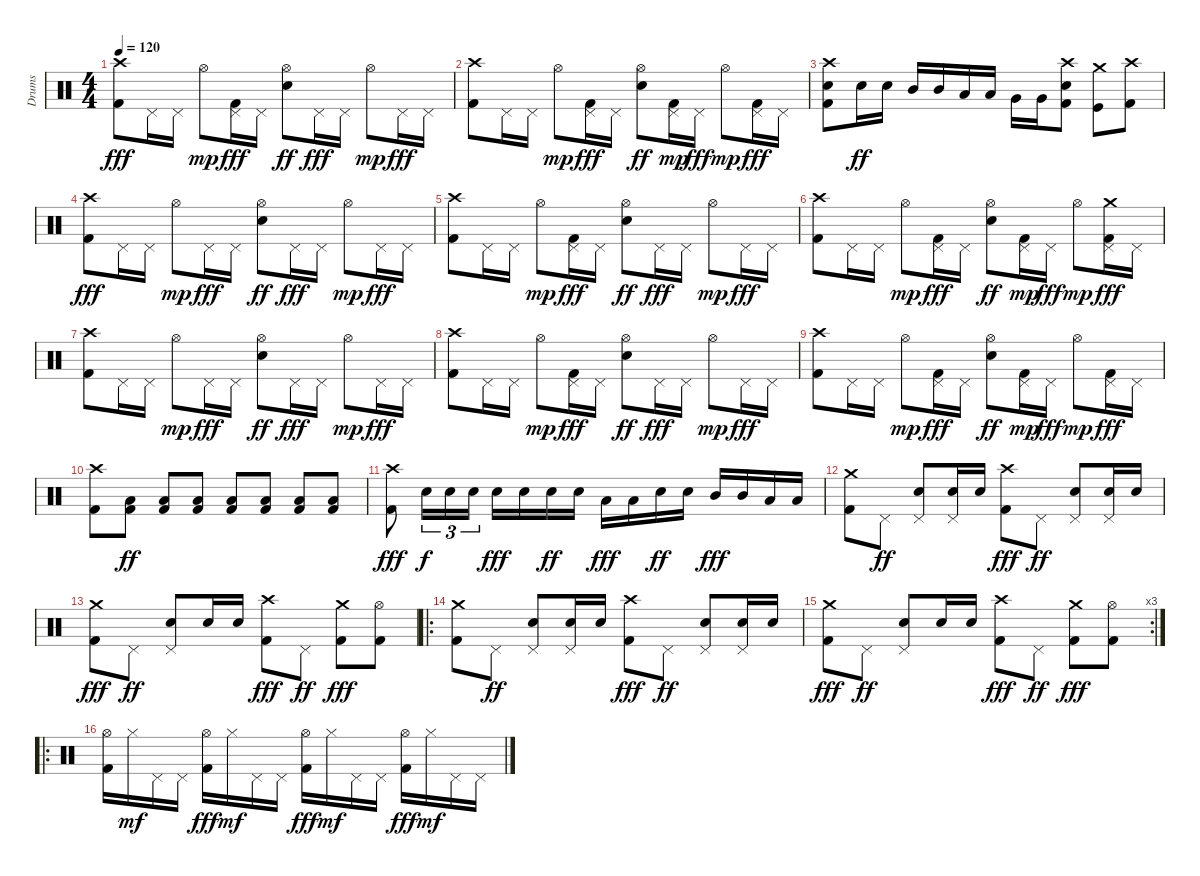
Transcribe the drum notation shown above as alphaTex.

\track ("Drums" "Drums") {instrument percussion}
\staff {score}
\articulation defaults
\ts (4 4)
\tempo 120
\clef neutral
\ks c
("Crash high (hit)" "Kick (hit) 2").8{dy fff} "Pedal Hi-Hat (hit)".16 "Pedal Hi-Hat (hit)".16 "Hi-Hat (open)".8{dy mp} ("Pedal Hi-Hat (hit)" "Kick (hit) 2").16{dy fff} "Pedal Hi-Hat (hit)".16 ("Hi-Hat (open)" "Snare (hit) 2").8{dy ff} "Pedal Hi-Hat (hit)".16{dy fff} "Pedal Hi-Hat (hit)".16 "Hi-Hat (open)".8{dy mp} "Pedal Hi-Hat (hit)".16{dy fff} "Pedal Hi-Hat (hit)".16 |
("Crash high (hit)" "Kick (hit) 2").8 "Pedal Hi-Hat (hit)".16 "Pedal Hi-Hat (hit)".16 "Hi-Hat (open)".8{dy mp} ("Pedal Hi-Hat (hit)" "Kick (hit) 2").16{dy fff} "Pedal Hi-Hat (hit)".16 ("Hi-Hat (open)" "Snare (hit) 2").8{dy ff} ("Pedal Hi-Hat (hit)" "Kick (hit) 2").16{dy mp} "Pedal Hi-Hat (hit)".16{dy fff} "Hi-Hat (open)".8{dy mp} ("Pedal Hi-Hat (hit)" "Kick (hit) 2").16{dy fff} "Pedal Hi-Hat (hit)".16 |
("Crash high (hit)" "Snare (hit) 2" "Kick (hit) 2").8 "Snare (hit) 2".16{dy ff} "Snare (hit) 2".16 "Mid Tom (hit)".16 "Mid Tom (hit)".16 "Low Tom (hit)".16 "Low Tom (hit)".16 "Very Low Tom (hit)".16 "Very Low Tom (hit)".16 ("Crash high (hit)" "Snare (hit) 2" "Kick (hit) 2").8 ("Crash medium (hit)" "Kick (hit)").8 ("Crash high (hit)" "Kick (hit) 2").8 |
("Crash high (hit)" "Kick (hit) 2").8{dy fff} "Pedal Hi-Hat (hit)".16 "Pedal Hi-Hat (hit)".16 "Hi-Hat (open)".8{dy mp} "Pedal Hi-Hat (hit)".16{dy fff} "Pedal Hi-Hat (hit)".16 ("Hi-Hat (open)" "Snare (hit) 2").8{dy ff} "Pedal Hi-Hat (hit)".16{dy fff} "Pedal Hi-Hat (hit)".16 "Hi-Hat (open)".8{dy mp} "Pedal Hi-Hat (hit)".16{dy fff} "Pedal Hi-Hat (hit)".16 |
("Crash high (hit)" "Kick (hit) 2").8 "Pedal Hi-Hat (hit)".16 "Pedal Hi-Hat (hit)".16 "Hi-Hat (open)".8{dy mp} ("Pedal Hi-Hat (hit)" "Kick (hit) 2").16{dy fff} "Pedal Hi-Hat (hit)".16 ("Hi-Hat (open)" "Snare (hit) 2").8{dy ff} "Pedal Hi-Hat (hit)".16{dy fff} "Pedal Hi-Hat (hit)".16 "Hi-Hat (open)".8{dy mp} "Pedal Hi-Hat (hit)".16{dy fff} "Pedal Hi-Hat (hit)".16 |
("Crash high (hit)" "Kick (hit) 2").8 "Pedal Hi-Hat (hit)".16 "Pedal Hi-Hat (hit)".16 "Hi-Hat (open)".8{dy mp} ("Pedal Hi-Hat (hit)" "Kick (hit) 2").16{dy fff} "Pedal Hi-Hat (hit)".16 ("Hi-Hat (open)" "Snare (hit) 2").8{dy ff} ("Pedal Hi-Hat (hit)" "Kick (hit) 2").16{dy mp} "Pedal Hi-Hat (hit)".16{dy fff} "Hi-Hat (open)".8{dy mp} ("Crash medium (hit)" "Pedal Hi-Hat (hit)" "Kick (hit) 2").16{dy fff} "Pedal Hi-Hat (hit)".16 |
("Crash high (hit)" "Kick (hit) 2").8 "Pedal Hi-Hat (hit)".16 "Pedal Hi-Hat (hit)".16 "Hi-Hat (open)".8{dy mp} "Pedal Hi-Hat (hit)".16{dy fff} "Pedal Hi-Hat (hit)".16 ("Hi-Hat (open)" "Snare (hit) 2").8{dy ff} "Pedal Hi-Hat (hit)".16{dy fff} "Pedal Hi-Hat (hit)".16 "Hi-Hat (open)".8{dy mp} "Pedal Hi-Hat (hit)".16{dy fff} "Pedal Hi-Hat (hit)".16 |
("Crash high (hit)" "Kick (hit) 2").8 "Pedal Hi-Hat (hit)".16 "Pedal Hi-Hat (hit)".16 "Hi-Hat (open)".8{dy mp} ("Pedal Hi-Hat (hit)" "Kick (hit) 2").16{dy fff} "Pedal Hi-Hat (hit)".16 ("Hi-Hat (open)" "Snare (hit) 2").8{dy ff} "Pedal Hi-Hat (hit)".16{dy fff} "Pedal Hi-Hat (hit)".16 "Hi-Hat (open)".8{dy mp} "Pedal Hi-Hat (hit)".16{dy fff} "Pedal Hi-Hat (hit)".16 |
("Crash high (hit)" "Kick (hit) 2").8 "Pedal Hi-Hat (hit)".16 "Pedal Hi-Hat (hit)".16 "Hi-Hat (open)".8{dy mp} ("Pedal Hi-Hat (hit)" "Kick (hit) 2").16{dy fff} "Pedal Hi-Hat (hit)".16 ("Hi-Hat (open)" "Snare (hit) 2").8{dy ff} ("Pedal Hi-Hat (hit)" "Kick (hit) 2").16{dy mp} "Pedal Hi-Hat (hit)".16{dy fff} "Hi-Hat (open)".8{dy mp} ("Pedal Hi-Hat (hit)" "Kick (hit) 2").16{dy fff} "Pedal Hi-Hat (hit)".16 |
("Crash high (hit)" "Kick (hit) 2").8 ("Low Tom (hit)" "Kick (hit) 2").8{dy ff} ("Low Tom (hit)" "Kick (hit) 2").8 ("Low Tom (hit)" "Kick (hit) 2").8 ("Low Tom (hit)" "Kick (hit) 2").8 ("Low Tom (hit)" "Kick (hit) 2").8 ("Low Tom (hit)" "Kick (hit) 2").8 ("Low Tom (hit)" "Kick (hit) 2").8 |
("Crash high (hit)" "Kick (hit) 2").8{dy fff} "Snare (hit) 2".16{tu (3 2) dy f} "Snare (hit) 2".16{tu (3 2)} "Snare (hit) 2".16{tu (3 2)} "Snare (hit) 2".16{dy fff} "Snare (hit) 2".16 "Snare (hit) 2".16{dy ff} "Snare (hit) 2".16 "Low Tom (hit)".16{dy fff} "Low Tom (hit)".16 "Snare (hit) 2".16{dy ff} "Snare (hit) 2".16 "Mid Tom (hit)".16{dy fff} "Mid Tom (hit)".16 "Low Tom (hit)".16 "Low Tom (hit)".16 |
("Crash medium (hit)" "Kick (hit) 2").8 "Pedal Hi-Hat (hit)".8{dy ff} ("Pedal Hi-Hat (hit)" "Snare (hit) 2").8 ("Pedal Hi-Hat (hit)" "Snare (hit) 2").16 "Snare (hit) 2".16 ("Crash high (hit)" "Kick (hit) 2").8{dy fff} "Pedal Hi-Hat (hit)".8{dy ff} ("Pedal Hi-Hat (hit)" "Snare (hit) 2").8 ("Pedal Hi-Hat (hit)" "Snare (hit) 2").16 "Snare (hit) 2".16 |
("Crash medium (hit)" "Kick (hit) 2").8{dy fff} "Pedal Hi-Hat (hit)".8{dy ff} ("Pedal Hi-Hat (hit)" "Snare (hit) 2").8 "Snare (hit) 2".16 "Snare (hit) 2".16 ("Crash high (hit)" "Kick (hit) 2").8{dy fff} "Pedal Hi-Hat (hit)".8{dy ff} ("Crash medium (hit)" "Kick (hit) 2").8{dy fff} ("Hi-Hat (open)" "Kick (hit) 2").8 |
\ro
("Crash medium (hit)" "Kick (hit) 2").8 "Pedal Hi-Hat (hit)".8{dy ff} ("Pedal Hi-Hat (hit)" "Snare (hit) 2").8 ("Pedal Hi-Hat (hit)" "Snare (hit) 2").16 "Snare (hit) 2".16 ("Crash high (hit)" "Kick (hit) 2").8{dy fff} "Pedal Hi-Hat (hit)".8{dy ff} ("Pedal Hi-Hat (hit)" "Snare (hit) 2").8 ("Pedal Hi-Hat (hit)" "Snare (hit) 2").16 "Snare (hit) 2".16 |
\rc 3
("Crash medium (hit)" "Kick (hit) 2").8{dy fff} "Pedal Hi-Hat (hit)".8{dy ff} ("Pedal Hi-Hat (hit)" "Snare (hit) 2").8 "Snare (hit) 2".16 "Snare (hit) 2".16 ("Crash high (hit)" "Kick (hit) 2").8{dy fff} "Pedal Hi-Hat (hit)".8{dy ff} ("Crash medium (hit)" "Kick (hit) 2").8{dy fff} ("Hi-Hat (open)" "Kick (hit) 2").8 |
\ro
("Hi-Hat (open)" "Kick (hit) 2").16 "Hi-Hat (closed)".16{dy mf} "Pedal Hi-Hat (hit)".16 "Pedal Hi-Hat (hit)".16 ("Hi-Hat (open)" "Kick (hit) 2").16{dy fff} "Hi-Hat (closed)".16{dy mf} "Pedal Hi-Hat (hit)".16 "Pedal Hi-Hat (hit)".16 ("Hi-Hat (open)" "Kick (hit) 2").16{dy fff} "Hi-Hat (closed)".16{dy mf} "Pedal Hi-Hat (hit)".16 "Pedal Hi-Hat (hit)".16 ("Hi-Hat (open)" "Kick (hit) 2").16{dy fff} "Hi-Hat (closed)".16{dy mf} "Pedal Hi-Hat (hit)".16 "Pedal Hi-Hat (hit)".16
